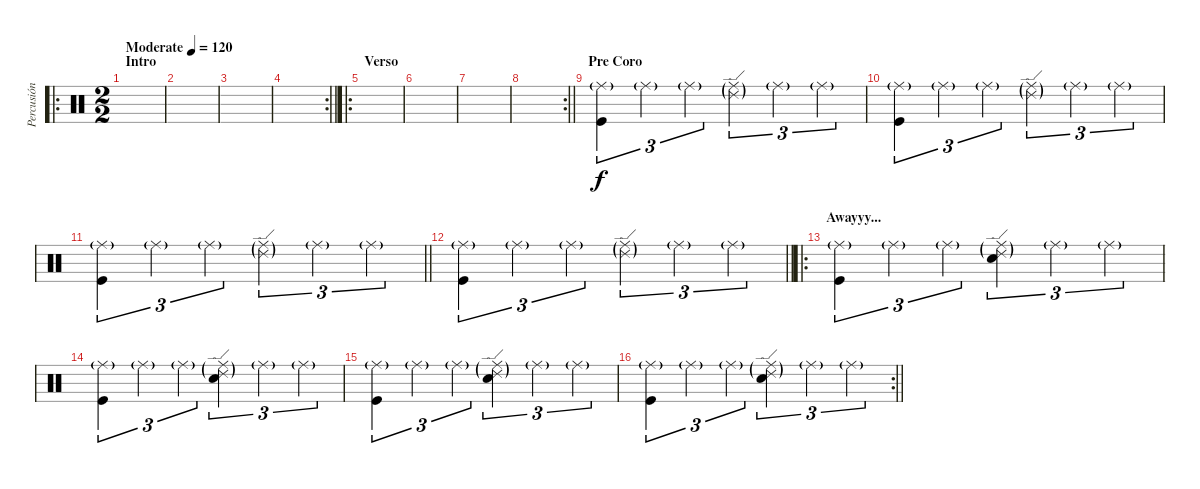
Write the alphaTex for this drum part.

\track ("Percusión" "Percusión") {instrument percussion}
\staff {score}
\articulation defaults
\ro
\ts (2 2)
\section ("" "Intro")
\tempo (120 "Moderate")
\clef neutral
\ks c
|
|
|
\rc 2
\barLineRight lightlight
|
\ro
\section ("" "Verso")
|
|
|
\rc 2
\barLineRight lightlight
|
\section ("" "Pre Coro")
("Ride (middle)"{g} "Kick (hit)").4{tu (3 2)} "Ride (middle)"{g}.4{tu (3 2)} "Ride (middle)"{g}.4{tu (3 2)} ("Ride (middle)"{g} "Ride (edge) 2"{g}).4{tu (3 2)} "Ride (middle)"{g}.4{tu (3 2)} "Ride (middle)"{g}.4{tu (3 2)} |
("Ride (middle)"{g} "Kick (hit)").4{tu (3 2)} "Ride (middle)"{g}.4{tu (3 2)} "Ride (middle)"{g}.4{tu (3 2)} ("Ride (edge) 2"{g} "Ride (middle)"{g}).4{tu (3 2)} "Ride (middle)"{g}.4{tu (3 2)} "Ride (middle)"{g}.4{tu (3 2)} |
\barLineRight lightlight
("Ride (middle)"{g} "Kick (hit)").4{tu (3 2)} "Ride (middle)"{g}.4{tu (3 2)} "Ride (middle)"{g}.4{tu (3 2)} ("Ride (middle)"{g} "Ride (edge) 2"{g}).4{tu (3 2)} "Ride (middle)"{g}.4{tu (3 2)} "Ride (middle)"{g}.4{tu (3 2)} |
\section ("" "")
\barLineRight lightlight
("Ride (middle)"{g} "Kick (hit)").4{tu (3 2)} "Ride (middle)"{g}.4{tu (3 2)} "Ride (middle)"{g}.4{tu (3 2)} ("Ride (middle)"{g} "Ride (edge) 2"{g}).4{tu (3 2)} "Ride (middle)"{g}.4{tu (3 2)} "Ride (middle)"{g}.4{tu (3 2)} |
\ro
\section ("" "Awayyy...")
("Ride (middle)"{g} "Kick (hit)").4{tu (3 2)} "Ride (middle)"{g}.4{tu (3 2)} "Ride (middle)"{g}.4{tu (3 2)} ("Ride (edge) 2"{g} "Ride (middle)"{g} "Electric Snare (hit)").4{tu (3 2)} "Ride (middle)"{g}.4{tu (3 2)} "Ride (middle)"{g}.4{tu (3 2)} |
("Ride (middle)"{g} "Kick (hit)").4{tu (3 2)} "Ride (middle)"{g}.4{tu (3 2)} "Ride (middle)"{g}.4{tu (3 2)} ("Ride (middle)"{g} "Ride (edge) 2"{g} "Electric Snare (hit)").4{tu (3 2)} "Ride (middle)"{g}.4{tu (3 2)} "Ride (middle)"{g}.4{tu (3 2)} |
("Ride (middle)"{g} "Kick (hit)").4{tu (3 2)} "Ride (middle)"{g}.4{tu (3 2)} "Ride (middle)"{g}.4{tu (3 2)} ("Ride (middle)"{g} "Ride (edge) 2"{g} "Electric Snare (hit)").4{tu (3 2)} "Ride (middle)"{g}.4{tu (3 2)} "Ride (middle)"{g}.4{tu (3 2)} |
\rc 2
\barLineRight lightlight
("Ride (middle)"{g} "Kick (hit)").4{tu (3 2)} "Ride (middle)"{g}.4{tu (3 2)} "Ride (middle)"{g}.4{tu (3 2)} ("Ride (middle)"{g} "Ride (edge) 2"{g} "Electric Snare (hit)").4{tu (3 2)} "Ride (middle)"{g}.4{tu (3 2)} "Ride (middle)"{g}.4{tu (3 2)}
